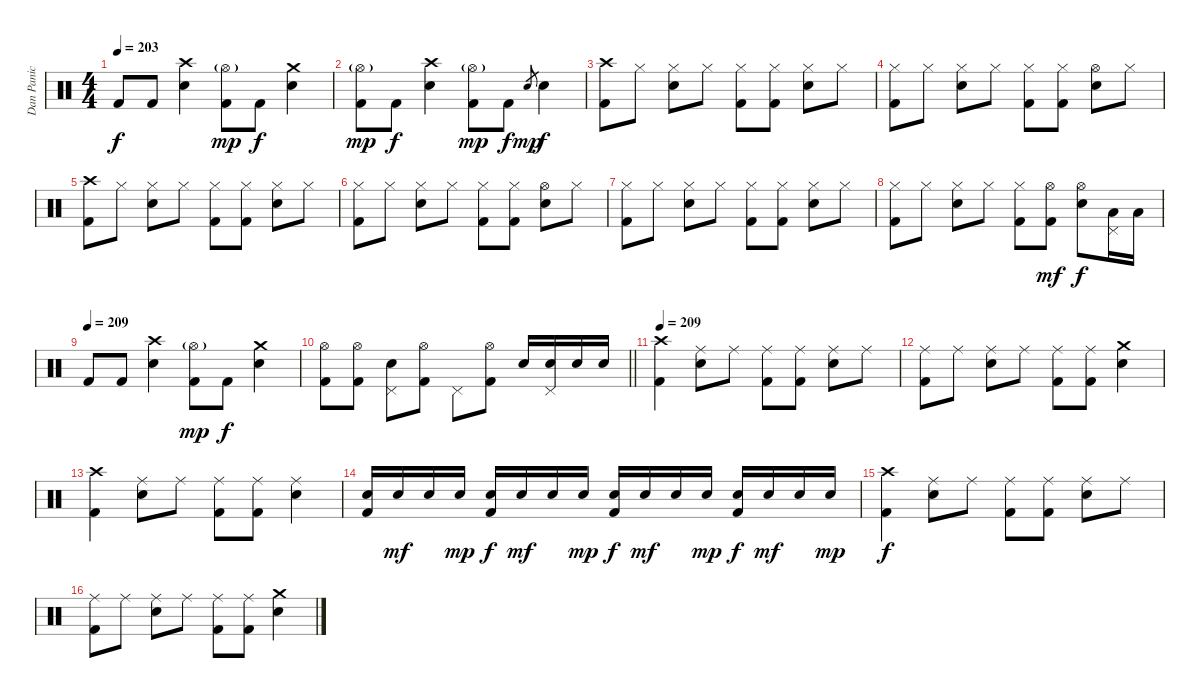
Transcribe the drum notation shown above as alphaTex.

\track ("Dan Panic" "Dan Panic") {instrument percussion}
\staff {score}
\articulation defaults
\ts (4 4)
\tempo 203
\clef neutral
\ks c "Kick (hit) 2".8{dy f} "Kick (hit) 2".8
("Crash high (hit)" "Electric Snare (hit)").4 ("Hi-Hat (open)"{g} "Kick (hit) 2").8{dy mp} "Kick (hit) 2".8{dy f} ("Crash medium (hit)" "Electric Snare (hit)").4 |
("Hi-Hat (open)"{g} "Kick (hit) 2").8{dy mp} "Kick (hit) 2".8{dy f} ("Crash high (hit)" "Electric Snare (hit)").4 ("Hi-Hat (open)"{g} "Kick (hit) 2").8{dy mp} "Kick (hit) 2".8{dy f} "Electric Snare (hit)".8{gr dy mp} "Electric Snare (hit)".4{dy f} |
("Crash high (hit)" "Kick (hit) 2").8 "Hi-Hat (closed)".8 ("Hi-Hat (closed)" "Electric Snare (hit)").8 "Hi-Hat (closed)".8 ("Hi-Hat (closed)" "Kick (hit) 2").8 ("Hi-Hat (closed)" "Kick (hit) 2").8 ("Hi-Hat (closed)" "Electric Snare (hit)").8 "Hi-Hat (closed)".8 |
("Hi-Hat (closed)" "Kick (hit) 2").8 "Hi-Hat (closed)".8 ("Hi-Hat (closed)" "Electric Snare (hit)").8 "Hi-Hat (closed)".8 ("Hi-Hat (closed)" "Kick (hit) 2").8 ("Hi-Hat (closed)" "Kick (hit) 2").8 ("Hi-Hat (open)" "Electric Snare (hit)").8 "Hi-Hat (closed)".8 |
("Crash high (hit)" "Kick (hit) 2").8 "Hi-Hat (closed)".8 ("Hi-Hat (closed)" "Electric Snare (hit)").8 "Hi-Hat (closed)".8 ("Hi-Hat (closed)" "Kick (hit) 2").8 ("Hi-Hat (closed)" "Kick (hit) 2").8 ("Hi-Hat (closed)" "Electric Snare (hit)").8 "Hi-Hat (closed)".8 |
("Hi-Hat (closed)" "Kick (hit) 2").8 "Hi-Hat (closed)".8 ("Hi-Hat (closed)" "Electric Snare (hit)").8 "Hi-Hat (closed)".8 ("Hi-Hat (closed)" "Kick (hit) 2").8 ("Hi-Hat (closed)" "Kick (hit) 2").8 ("Hi-Hat (open)" "Electric Snare (hit)").8 "Hi-Hat (closed)".8 |
("Hi-Hat (closed)" "Kick (hit) 2").8 "Hi-Hat (closed)".8 ("Hi-Hat (closed)" "Electric Snare (hit)").8 "Hi-Hat (closed)".8 ("Hi-Hat (closed)" "Kick (hit) 2").8 ("Hi-Hat (closed)" "Kick (hit) 2").8 ("Hi-Hat (closed)" "Electric Snare (hit)").8 "Hi-Hat (closed)".8 |
("Hi-Hat (closed)" "Kick (hit) 2").8 "Hi-Hat (closed)".8 ("Hi-Hat (closed)" "Electric Snare (hit)").8 "Hi-Hat (closed)".8 ("Hi-Hat (closed)" "Kick (hit) 2").8 ("Hi-Hat (open)" "Kick (hit) 2").8{dy mf} ("Hi-Hat (open)" "Electric Snare (hit)").8{dy f} ("Pedal Hi-Hat (hit)" "Low Tom (hit)").16 "Low Floor Tom (hit)".16 |
\tempo (209)
"Kick (hit) 2".8 "Kick (hit) 2".8 ("Crash high (hit)" "Electric Snare (hit)").4 ("Hi-Hat (open)"{g} "Kick (hit) 2").8{dy mp} "Kick (hit) 2".8{dy f} ("Crash medium (hit)" "Electric Snare (hit)").4 |
\barLineRight lightlight
("Hi-Hat (open)" "Kick (hit) 2").8 ("Hi-Hat (open)" "Kick (hit) 2").8 ("Pedal Hi-Hat (hit)" "Electric Snare (hit)").8 ("Hi-Hat (open)" "Kick (hit) 2").8 "Pedal Hi-Hat (hit)".8 ("Hi-Hat (open)" "Kick (hit) 2").8 "Electric Snare (hit)".16 ("Pedal Hi-Hat (hit)" "Electric Snare (hit)").16 "Electric Snare (hit)".16 "Electric Snare (hit)".16 |
\section ("" "")
\tempo 209
("Crash high (hit)" "Kick (hit) 2").4 ("Ride (middle)" "Electric Snare (hit)").8 "Ride (middle)".8 ("Ride (middle)" "Kick (hit) 2").8 ("Ride (middle)" "Kick (hit) 2").8 ("Ride (middle)" "Electric Snare (hit)").8 "Ride (middle)".8 |
("Ride (middle)" "Kick (hit) 2").8 "Ride (middle)".8 ("Ride (middle)" "Electric Snare (hit)").8 "Ride (middle)".8 ("Ride (middle)" "Kick (hit) 2").8 ("Ride (middle)" "Kick (hit) 2").8 ("Crash medium (hit)" "Electric Snare (hit)").4 |
("Crash high (hit)" "Kick (hit) 2").4 ("Ride (middle)" "Electric Snare (hit)").8 "Ride (middle)".8 ("Ride (middle)" "Kick (hit) 2").8 ("Ride (middle)" "Kick (hit) 2").8 ("Ride (middle)" "Electric Snare (hit)").4 |
("Electric Snare (hit)" "Kick (hit) 2").16 "Electric Snare (hit)".16{dy mf} "Electric Snare (hit)".16 "Electric Snare (hit)".16{dy mp} ("Electric Snare (hit)" "Kick (hit) 2").16{dy f} "Electric Snare (hit)".16{dy mf} "Electric Snare (hit)".16 "Electric Snare (hit)".16{dy mp} ("Electric Snare (hit)" "Kick (hit) 2").16{dy f} "Electric Snare (hit)".16{dy mf} "Electric Snare (hit)".16 "Electric Snare (hit)".16{dy mp} ("Electric Snare (hit)" "Kick (hit) 2").16{dy f} "Electric Snare (hit)".16{dy mf} "Electric Snare (hit)".16 "Electric Snare (hit)".16{dy mp} |
("Crash high (hit)" "Kick (hit) 2").4{dy f} ("Ride (middle)" "Electric Snare (hit)").8 "Ride (middle)".8 ("Ride (middle)" "Kick (hit) 2").8 ("Ride (middle)" "Kick (hit) 2").8 ("Ride (middle)" "Electric Snare (hit)").8 "Ride (middle)".8 |
("Ride (middle)" "Kick (hit) 2").8 "Ride (middle)".8 ("Ride (middle)" "Electric Snare (hit)").8 "Ride (middle)".8 ("Ride (middle)" "Kick (hit) 2").8 ("Ride (middle)" "Kick (hit) 2").8 ("Crash medium (hit)" "Electric Snare (hit)").4
